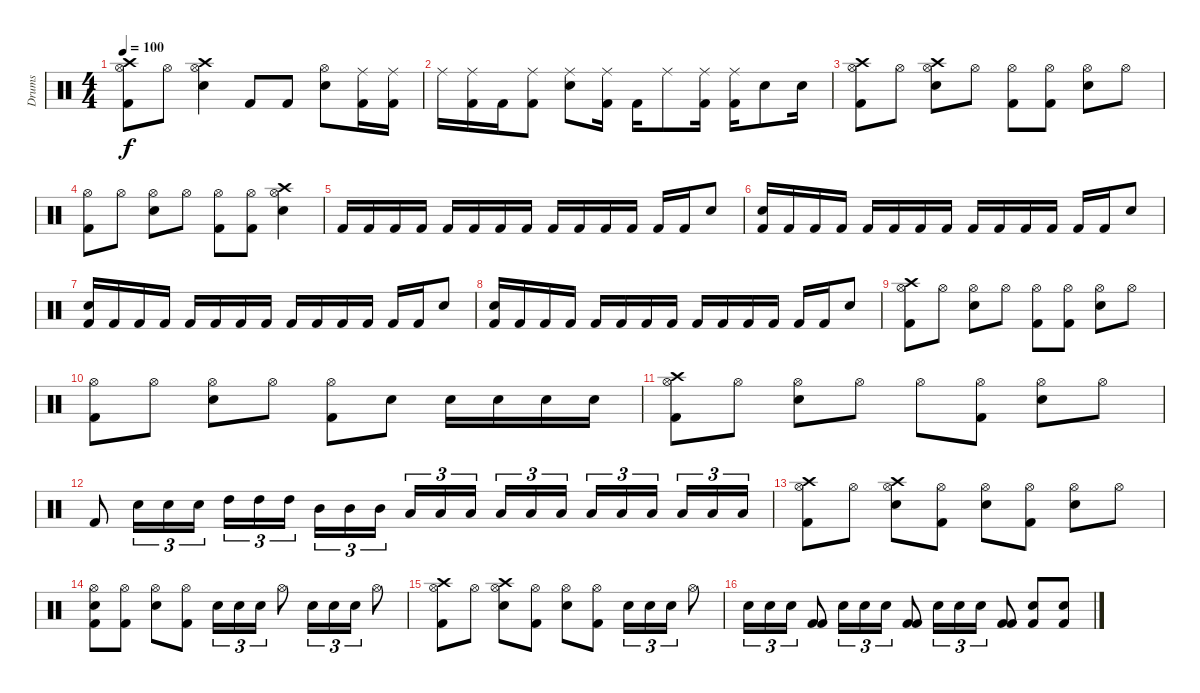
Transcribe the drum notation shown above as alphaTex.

\track ("Drums" "Drums") {instrument percussion}
\staff {score}
\articulation defaults
\ts (4 4)
\tempo 100
\clef neutral
\ks c
("Crash high (hit)" "Hi-Hat (open)" "Kick (hit) 2").8{dy f} "Hi-Hat (open)".8 ("Crash high (hit)" "Hi-Hat (open)" "Electric Snare (hit)").4 "Kick (hit) 2".8 "Kick (hit) 2".8 ("Hi-Hat (open)" "Electric Snare (hit)").8 ("Ride (middle)" "Kick (hit) 2").16 ("Ride (middle)" "Kick (hit) 2").16 |
"Ride (middle)".16 ("Ride (middle)" "Kick (hit) 2").16 "Kick (hit) 2".16 ("Ride (middle)" "Kick (hit) 2").8 ("Ride (middle)" "Electric Snare (hit)").8 ("Ride (middle)" "Kick (hit) 2").16 "Kick (hit) 2".16 "Ride (middle)".8 ("Ride (middle)" "Kick (hit) 2").16 ("Ride (middle)" "Kick (hit) 2").16 "Electric Snare (hit)".8 "Electric Snare (hit)".16 |
("Crash high (hit)" "Hi-Hat (open)" "Kick (hit) 2").8 "Hi-Hat (open)".8 ("Crash high (hit)" "Hi-Hat (open)" "Electric Snare (hit)").8 "Hi-Hat (open)".8 ("Hi-Hat (open)" "Kick (hit) 2").8 ("Hi-Hat (open)" "Kick (hit) 2").8 ("Hi-Hat (open)" "Electric Snare (hit)").8 "Hi-Hat (open)".8 |
("Hi-Hat (open)" "Kick (hit) 2").8 "Hi-Hat (open)".8 ("Hi-Hat (open)" "Electric Snare (hit)").8 "Hi-Hat (open)".8 ("Hi-Hat (open)" "Kick (hit) 2").8 ("Hi-Hat (open)" "Kick (hit) 2").8 ("Crash high (hit)" "Hi-Hat (open)" "Electric Snare (hit)").4 |
"Kick (hit) 2".16 "Kick (hit) 2".16 "Kick (hit) 2".16 "Kick (hit) 2".16 "Kick (hit) 2".16 "Kick (hit) 2".16 "Kick (hit) 2".16 "Kick (hit) 2".16 "Kick (hit) 2".16 "Kick (hit) 2".16 "Kick (hit) 2".16 "Kick (hit) 2".16 "Kick (hit) 2".16 "Kick (hit) 2".16 "Electric Snare (hit)".8 |
("Electric Snare (hit)" "Kick (hit) 2").16 "Kick (hit) 2".16 "Kick (hit) 2".16 "Kick (hit) 2".16 "Kick (hit) 2".16 "Kick (hit) 2".16 "Kick (hit) 2".16 "Kick (hit) 2".16 "Kick (hit) 2".16 "Kick (hit) 2".16 "Kick (hit) 2".16 "Kick (hit) 2".16 "Kick (hit) 2".16 "Kick (hit) 2".16 "Electric Snare (hit)".8 |
("Electric Snare (hit)" "Kick (hit) 2").16 "Kick (hit) 2".16 "Kick (hit) 2".16 "Kick (hit) 2".16 "Kick (hit) 2".16 "Kick (hit) 2".16 "Kick (hit) 2".16 "Kick (hit) 2".16 "Kick (hit) 2".16 "Kick (hit) 2".16 "Kick (hit) 2".16 "Kick (hit) 2".16 "Kick (hit) 2".16 "Kick (hit) 2".16 "Electric Snare (hit)".8 |
("Electric Snare (hit)" "Kick (hit) 2").16 "Kick (hit) 2".16 "Kick (hit) 2".16 "Kick (hit) 2".16 "Kick (hit) 2".16 "Kick (hit) 2".16 "Kick (hit) 2".16 "Kick (hit) 2".16 "Kick (hit) 2".16 "Kick (hit) 2".16 "Kick (hit) 2".16 "Kick (hit) 2".16 "Kick (hit) 2".16 "Kick (hit) 2".16 "Electric Snare (hit)".8 |
("Crash high (hit)" "Hi-Hat (open)" "Kick (hit) 2").8 "Hi-Hat (open)".8 ("Hi-Hat (open)" "Electric Snare (hit)").8 "Hi-Hat (open)".8 ("Hi-Hat (open)" "Kick (hit) 2").8 ("Hi-Hat (open)" "Kick (hit) 2").8 ("Hi-Hat (open)" "Electric Snare (hit)").8 "Hi-Hat (open)".8 |
("Hi-Hat (open)" "Kick (hit) 2").8 "Hi-Hat (open)".8 ("Hi-Hat (open)" "Electric Snare (hit)").8 "Hi-Hat (open)".8 ("Hi-Hat (open)" "Kick (hit) 2").8 "Electric Snare (hit)".8 "Electric Snare (hit)".16 "Electric Snare (hit)".16 "Electric Snare (hit)".16 "Electric Snare (hit)".16 |
("Crash high (hit)" "Hi-Hat (open)" "Kick (hit) 2").8 "Hi-Hat (open)".8 ("Hi-Hat (open)" "Electric Snare (hit)").8 "Hi-Hat (open)".8 "Hi-Hat (open)".8 ("Hi-Hat (open)" "Kick (hit) 2").8 ("Hi-Hat (open)" "Electric Snare (hit)").8 "Hi-Hat (open)".8 |
"Kick (hit) 2".8 "Electric Snare (hit)".16{tu (3 2)} "Electric Snare (hit)".16{tu (3 2)} "Electric Snare (hit)".16{tu (3 2)} "High Tom (hit)".16{tu (3 2)} "High Tom (hit)".16{tu (3 2)} "High Tom (hit)".16{tu (3 2)} "Mid Tom (hit)".16{tu (3 2)} "Mid Tom (hit)".16{tu (3 2)} "Mid Tom (hit)".16{tu (3 2)} "Low Tom (hit)".16{tu (3 2)} "Low Tom (hit)".16{tu (3 2)} "Low Tom (hit)".16{tu (3 2)} "Low Floor Tom (hit)".16{tu (3 2)} "Low Floor Tom (hit)".16{tu (3 2)} "Low Floor Tom (hit)".16{tu (3 2)} "Low Floor Tom (hit)".16{tu (3 2)} "Low Floor Tom (hit)".16{tu (3 2)} "Low Floor Tom (hit)".16{tu (3 2)} "Low Floor Tom (hit)".16{tu (3 2)} "Low Floor Tom (hit)".16{tu (3 2)} "Low Floor Tom (hit)".16{tu (3 2)} |
("Crash high (hit)" "Hi-Hat (open)" "Kick (hit) 2").8 "Hi-Hat (open)".8 ("Crash high (hit)" "Hi-Hat (open)" "Electric Snare (hit)").8 ("Hi-Hat (open)" "Kick (hit) 2").8 ("Hi-Hat (open)" "Electric Snare (hit)").8 ("Hi-Hat (open)" "Kick (hit) 2").8 ("Hi-Hat (open)" "Electric Snare (hit)").8 "Hi-Hat (open)".8 |
("Hi-Hat (open)" "Electric Snare (hit)" "Kick (hit) 2").8 ("Hi-Hat (open)" "Kick (hit) 2").8 ("Hi-Hat (open)" "Electric Snare (hit)").8 ("Hi-Hat (open)" "Kick (hit) 2").8 "Electric Snare (hit)".16{tu (3 2)} "Electric Snare (hit)".16{tu (3 2)} "Electric Snare (hit)".16{tu (3 2)} "Hi-Hat (open)".8 "Electric Snare (hit)".16{tu (3 2)} "Electric Snare (hit)".16{tu (3 2)} "Electric Snare (hit)".16{tu (3 2)} "Hi-Hat (open)".8 |
("Crash high (hit)" "Hi-Hat (open)" "Kick (hit) 2").8 "Hi-Hat (open)".8 ("Crash high (hit)" "Hi-Hat (open)" "Electric Snare (hit)").8 ("Hi-Hat (open)" "Kick (hit) 2").8 ("Hi-Hat (open)" "Electric Snare (hit)").8 ("Hi-Hat (open)" "Kick (hit) 2").8 "Electric Snare (hit)".16{tu (3 2)} "Electric Snare (hit)".16{tu (3 2)} "Electric Snare (hit)".16{tu (3 2)} "Hi-Hat (open)".8 |
"Electric Snare (hit)".16{tu (3 2)} "Electric Snare (hit)".16{tu (3 2)} "Electric Snare (hit)".16{tu (3 2)} ("Kick (hit) 2" "Kick (hit) 2").8 "Electric Snare (hit)".16{tu (3 2)} "Electric Snare (hit)".16{tu (3 2)} "Electric Snare (hit)".16{tu (3 2)} ("Kick (hit) 2" "Kick (hit) 2").8 "Electric Snare (hit)".16{tu (3 2)} "Electric Snare (hit)".16{tu (3 2)} "Electric Snare (hit)".16{tu (3 2)} ("Kick (hit) 2" "Kick (hit) 2").8 ("Kick (hit) 2" "Electric Snare (hit)").8 ("Kick (hit) 2" "Electric Snare (hit)").8
